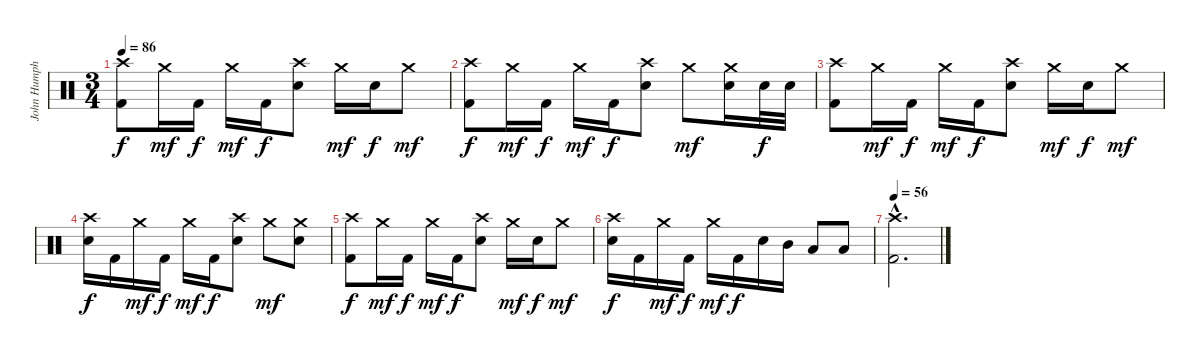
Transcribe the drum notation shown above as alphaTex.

\track ("John Humphrey" "John Humph") {instrument percussion}
\staff {score}
\articulation defaults
\ts (3 4)
\tempo 86
\clef neutral
\ks c
("Crash high (hit)" "Kick (hit) 2").8{dy f} "Crash medium (hit)".16{dy mf} "Kick (hit) 2".16{dy f} "Crash medium (hit)".16{dy mf} "Kick (hit) 2".16{dy f} ("Crash high (hit)" "Snare (hit) 2").8 "Crash medium (hit)".16{dy mf} "Snare (hit) 2".16{dy f} "Crash medium (hit)".8{dy mf} |
("Crash high (hit)" "Kick (hit) 2").8{dy f} "Crash medium (hit)".16{dy mf} "Kick (hit) 2".16{dy f} "Crash medium (hit)".16{dy mf} "Kick (hit) 2".16{dy f} ("Crash high (hit)" "Snare (hit) 2").8 "Crash medium (hit)".8{dy mf} ("Crash medium (hit)" "Snare (hit) 2").16 "Snare (hit) 2".32{dy f} "Snare (hit) 2".32 |
("Crash high (hit)" "Kick (hit) 2").8 "Crash medium (hit)".16{dy mf} "Kick (hit) 2".16{dy f} "Crash medium (hit)".16{dy mf} "Kick (hit) 2".16{dy f} ("Crash high (hit)" "Snare (hit) 2").8 "Crash medium (hit)".16{dy mf} "Snare (hit) 2".16{dy f} "Crash medium (hit)".8{dy mf} |
("Crash high (hit)" "Snare (hit) 2").16{dy f} "Kick (hit) 2".16 "Crash medium (hit)".16{dy mf} "Kick (hit) 2".16{dy f} "Crash medium (hit)".16{dy mf} "Kick (hit) 2".16{dy f} ("Crash high (hit)" "Snare (hit) 2").8 "Crash medium (hit)".8{dy mf} ("Crash medium (hit)" "Snare (hit) 2").8 |
("Crash high (hit)" "Kick (hit) 2").8{dy f} "Crash medium (hit)".16{dy mf} "Kick (hit) 2".16{dy f} "Crash medium (hit)".16{dy mf} "Kick (hit) 2".16{dy f} ("Crash high (hit)" "Snare (hit) 2").8 "Crash medium (hit)".16{dy mf} "Snare (hit) 2".16{dy f} "Crash medium (hit)".8{dy mf} |
("Crash high (hit)" "Snare (hit) 2").16{dy f} "Kick (hit) 2".16 "Crash medium (hit)".16{dy mf} "Kick (hit) 2".16{dy f} "Crash medium (hit)".16{dy mf} "Kick (hit) 2".16{dy f} "Snare (hit) 2".16 "Mid Tom (hit)".16 "Low Tom (hit)".8 "Low Floor Tom (hit)".8 |
\tempo 56
("Crash high (hit)"{hac} "Kick (hit) 2"{hac}).2{d}
